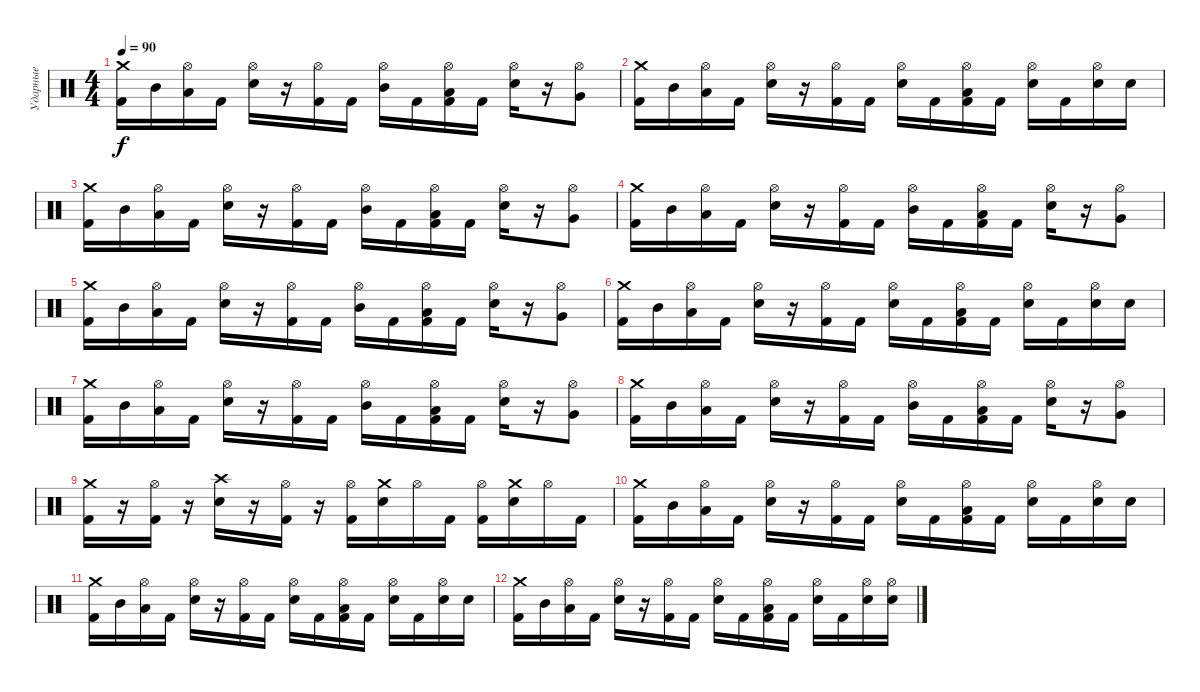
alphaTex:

\track ("Ударные" "Ударные") {instrument percussion}
\staff {score}
\articulation defaults
\ts (4 4)
\tempo 90
\clef neutral
\ks c
("Crash medium (hit)" "Kick (hit) 2").16{dy f} "Mid Tom (hit)".16 ("Hi-Hat (open)" "Low Tom (hit)").16 "Kick (hit) 2".16 ("Hi-Hat (open)" "Snare (hit) 2").16 r.16 ("Hi-Hat (open)" "Kick (hit) 2").16 "Kick (hit) 2".16 ("Hi-Hat (open)" "Mid Tom (hit)").16 "Kick (hit) 2".16 ("Hi-Hat (open)" "Low Tom (hit)" "Kick (hit) 2").16 "Kick (hit) 2".16 ("Hi-Hat (open)" "Snare (hit) 2").16 r.16 ("Hi-Hat (open)" "Very Low Tom (hit)").8 |
("Crash medium (hit)" "Kick (hit) 2").16 "Mid Tom (hit)".16 ("Hi-Hat (open)" "Low Tom (hit)").16 "Kick (hit) 2".16 ("Hi-Hat (open)" "Snare (hit) 2").16 r.16 ("Hi-Hat (open)" "Kick (hit) 2").16 "Kick (hit) 2".16 ("Hi-Hat (open)" "Snare (hit) 2").16 "Kick (hit) 2".16 ("Hi-Hat (open)" "Low Tom (hit)" "Kick (hit) 2").16 "Kick (hit) 2".16 ("Hi-Hat (open)" "Snare (hit) 2").16 "Kick (hit) 2".16 ("Hi-Hat (open)" "Snare (hit) 2").16 "Snare (hit) 2".16 |
("Crash medium (hit)" "Kick (hit) 2").16 "Mid Tom (hit)".16 ("Hi-Hat (open)" "Low Tom (hit)").16 "Kick (hit) 2".16 ("Hi-Hat (open)" "Snare (hit) 2").16 r.16 ("Hi-Hat (open)" "Kick (hit) 2").16 "Kick (hit) 2".16 ("Hi-Hat (open)" "Mid Tom (hit)").16 "Kick (hit) 2".16 ("Hi-Hat (open)" "Low Tom (hit)" "Kick (hit) 2").16 "Kick (hit) 2".16 ("Hi-Hat (open)" "Snare (hit) 2").16 r.16 ("Hi-Hat (open)" "Very Low Tom (hit)").8 |
("Crash medium (hit)" "Kick (hit) 2").16 "Mid Tom (hit)".16 ("Hi-Hat (open)" "Low Tom (hit)").16 "Kick (hit) 2".16 ("Hi-Hat (open)" "Snare (hit) 2").16 r.16 ("Hi-Hat (open)" "Kick (hit) 2").16 "Kick (hit) 2".16 ("Hi-Hat (open)" "Mid Tom (hit)").16 "Kick (hit) 2".16 ("Hi-Hat (open)" "Low Tom (hit)" "Kick (hit) 2").16 "Kick (hit) 2".16 ("Hi-Hat (open)" "Snare (hit) 2").16 r.16 ("Hi-Hat (open)" "Very Low Tom (hit)").8 |
("Crash medium (hit)" "Kick (hit) 2").16 "Mid Tom (hit)".16 ("Hi-Hat (open)" "Low Tom (hit)").16 "Kick (hit) 2".16 ("Hi-Hat (open)" "Snare (hit) 2").16 r.16 ("Hi-Hat (open)" "Kick (hit) 2").16 "Kick (hit) 2".16 ("Hi-Hat (open)" "Mid Tom (hit)").16 "Kick (hit) 2".16 ("Hi-Hat (open)" "Low Tom (hit)" "Kick (hit) 2").16 "Kick (hit) 2".16 ("Hi-Hat (open)" "Snare (hit) 2").16 r.16 ("Hi-Hat (open)" "Very Low Tom (hit)").8 |
("Crash medium (hit)" "Kick (hit) 2").16 "Mid Tom (hit)".16 ("Hi-Hat (open)" "Low Tom (hit)").16 "Kick (hit) 2".16 ("Hi-Hat (open)" "Snare (hit) 2").16 r.16 ("Hi-Hat (open)" "Kick (hit) 2").16 "Kick (hit) 2".16 ("Hi-Hat (open)" "Snare (hit) 2").16 "Kick (hit) 2".16 ("Hi-Hat (open)" "Low Tom (hit)" "Kick (hit) 2").16 "Kick (hit) 2".16 ("Hi-Hat (open)" "Snare (hit) 2").16 "Kick (hit) 2".16 ("Hi-Hat (open)" "Snare (hit) 2").16 "Snare (hit) 2".16 |
("Crash medium (hit)" "Kick (hit) 2").16 "Mid Tom (hit)".16 ("Hi-Hat (open)" "Low Tom (hit)").16 "Kick (hit) 2".16 ("Hi-Hat (open)" "Snare (hit) 2").16 r.16 ("Hi-Hat (open)" "Kick (hit) 2").16 "Kick (hit) 2".16 ("Hi-Hat (open)" "Mid Tom (hit)").16 "Kick (hit) 2".16 ("Hi-Hat (open)" "Low Tom (hit)" "Kick (hit) 2").16 "Kick (hit) 2".16 ("Hi-Hat (open)" "Snare (hit) 2").16 r.16 ("Hi-Hat (open)" "Very Low Tom (hit)").8 |
("Crash medium (hit)" "Kick (hit) 2").16 "Mid Tom (hit)".16 ("Hi-Hat (open)" "Low Tom (hit)").16 "Kick (hit) 2".16 ("Hi-Hat (open)" "Snare (hit) 2").16 r.16 ("Hi-Hat (open)" "Kick (hit) 2").16 "Kick (hit) 2".16 ("Hi-Hat (open)" "Mid Tom (hit)").16 "Kick (hit) 2".16 ("Hi-Hat (open)" "Low Tom (hit)" "Kick (hit) 2").16 "Kick (hit) 2".16 ("Hi-Hat (open)" "Snare (hit) 2").16 r.16 ("Hi-Hat (open)" "Very Low Tom (hit)").8 |
("Crash medium (hit)" "Kick (hit) 2").16 r.16 ("Hi-Hat (open)" "Kick (hit) 2").16 r.16 ("Crash high (hit)" "Snare (hit) 2").16 r.16 ("Hi-Hat (open)" "Kick (hit) 2").16 r.16 ("Hi-Hat (open)" "Kick (hit) 2").16 ("Crash medium (hit)" "Snare (hit) 2").16 "Hi-Hat (open)".16 "Kick (hit) 2".16 ("Hi-Hat (open)" "Kick (hit) 2").16 ("Crash medium (hit)" "Snare (hit) 2").16 "Hi-Hat (open)".16 "Kick (hit) 2".16 |
("Crash medium (hit)" "Kick (hit) 2").16 "Mid Tom (hit)".16 ("Hi-Hat (open)" "Low Tom (hit)").16 "Kick (hit) 2".16 ("Hi-Hat (open)" "Snare (hit) 2").16 r.16 ("Hi-Hat (open)" "Kick (hit) 2").16 "Kick (hit) 2".16 ("Hi-Hat (open)" "Snare (hit) 2").16 "Kick (hit) 2".16 ("Hi-Hat (open)" "Low Tom (hit)" "Kick (hit) 2").16 "Kick (hit) 2".16 ("Hi-Hat (open)" "Snare (hit) 2").16 "Kick (hit) 2".16 ("Hi-Hat (open)" "Snare (hit) 2").16 "Snare (hit) 2".16 |
("Crash medium (hit)" "Kick (hit) 2").16 "Mid Tom (hit)".16 ("Hi-Hat (open)" "Low Tom (hit)").16 "Kick (hit) 2".16 ("Hi-Hat (open)" "Snare (hit) 2").16 r.16 ("Hi-Hat (open)" "Kick (hit) 2").16 "Kick (hit) 2".16 ("Hi-Hat (open)" "Snare (hit) 2").16 "Kick (hit) 2".16 ("Hi-Hat (open)" "Low Tom (hit)" "Kick (hit) 2").16 "Kick (hit) 2".16 ("Hi-Hat (open)" "Snare (hit) 2").16 "Kick (hit) 2".16 ("Hi-Hat (open)" "Snare (hit) 2").16 "Snare (hit) 2".16 |
("Crash medium (hit)" "Kick (hit) 2").16 "Mid Tom (hit)".16 ("Hi-Hat (open)" "Low Tom (hit)").16 "Kick (hit) 2".16 ("Hi-Hat (open)" "Snare (hit) 2").16 r.16 ("Hi-Hat (open)" "Kick (hit) 2").16 "Kick (hit) 2".16 ("Hi-Hat (open)" "Snare (hit) 2").16 "Kick (hit) 2".16 ("Hi-Hat (open)" "Low Tom (hit)" "Kick (hit) 2").16 "Kick (hit) 2".16 ("Hi-Hat (open)" "Snare (hit) 2").16 "Kick (hit) 2".16 ("Hi-Hat (open)" "Snare (hit) 2").16 ("Hi-Hat (open)" "Snare (hit) 2").16
